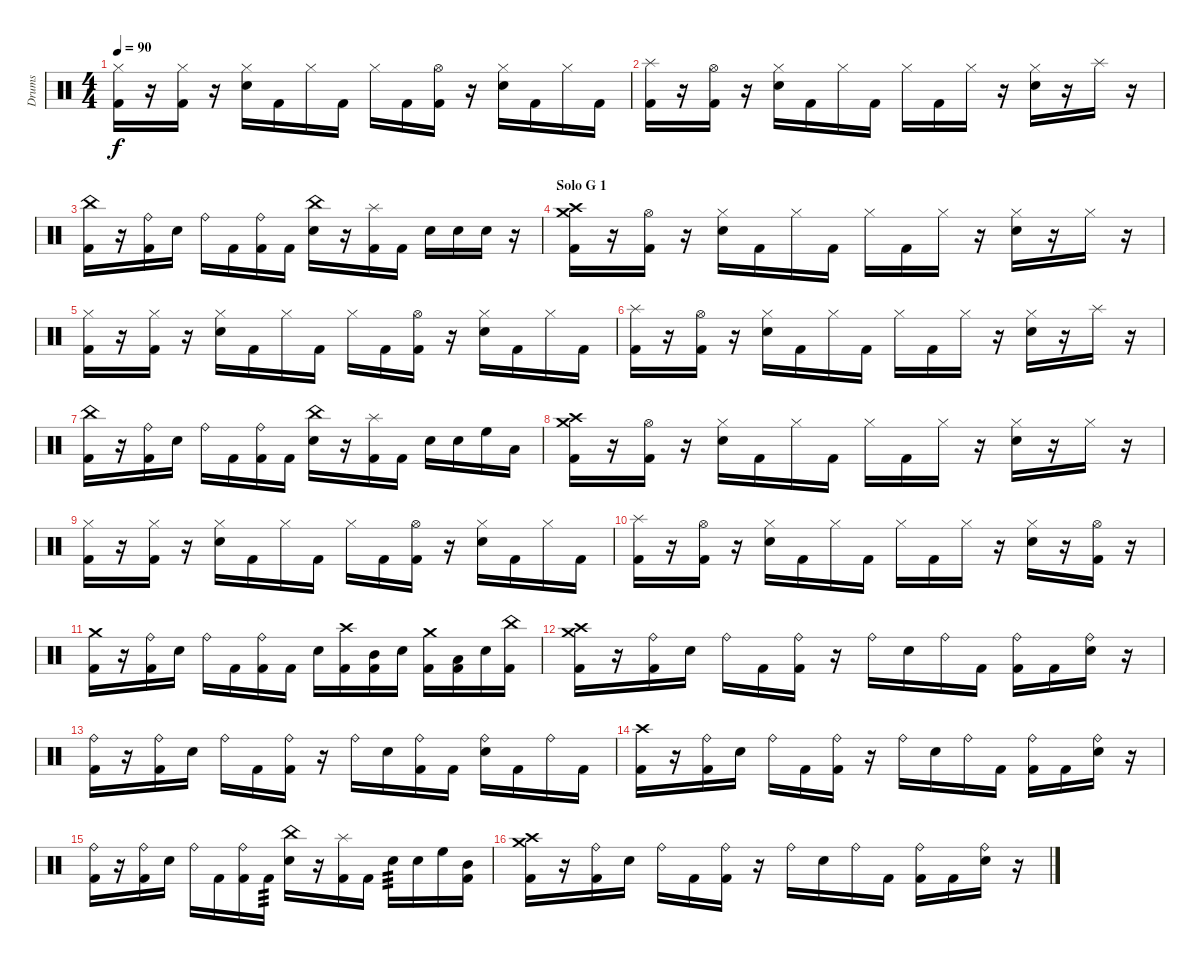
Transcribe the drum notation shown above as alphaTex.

\track ("Drums" "Drums") {instrument percussion}
\staff {score}
\articulation defaults
\ts (4 4)
\tempo 90
\clef neutral
\ks c
("Hi-Hat (closed)" "Kick (hit) 2").16{dy f} r.16 ("Hi-Hat (closed)" "Kick (hit) 2").16 r.16 ("Hi-Hat (closed)" "Snare (hit) 2").16 "Kick (hit) 2".16 "Hi-Hat (closed)".16 "Kick (hit) 2".16 "Hi-Hat (closed)".16 "Kick (hit) 2".16 ("Hi-Hat (open)" "Kick (hit) 2").16 r.16 ("Hi-Hat (closed)" "Snare (hit) 2").16 "Kick (hit) 2".16 "Hi-Hat (closed)".16 "Kick (hit) 2".16 |
("Splash (hit)" "Kick (hit) 2").16 r.16 ("Hi-Hat (open)" "Kick (hit) 2").16 r.16 ("Hi-Hat (closed)" "Snare (hit) 2").16 "Kick (hit) 2".16 "Hi-Hat (closed)".16 "Kick (hit) 2".16 "Hi-Hat (closed)".16 "Kick (hit) 2".16 "Hi-Hat (closed)".16 r.16 ("Hi-Hat (closed)" "Snare (hit) 2").16 r.16 "Splash (hit)".16 r.16 |
("China (hit)" "Kick (hit) 2").16 r.16 ("Ride (bell)" "Kick (hit) 2").16 "Snare (hit) 2".16 "Ride (bell)".16 "Kick (hit) 2".16 ("Ride (bell)" "Kick (hit) 2").16 "Kick (hit) 2".16 ("China (hit)" "Snare (hit) 2").16 r.16 ("Splash (hit)" "Kick (hit) 2").16 "Kick (hit) 2".16 "Snare (hit) 2".16 "Snare (hit) 2".16 "Snare (hit) 2".16 r.16 |
\section ("" "Solo G 1")
("Crash high (hit)" "Crash medium (hit)" "Kick (hit) 2").16 r.16 ("Hi-Hat (open)" "Kick (hit) 2").16 r.16 ("Hi-Hat (closed)" "Snare (hit) 2").16 "Kick (hit) 2".16 "Hi-Hat (closed)".16 "Kick (hit) 2".16 "Hi-Hat (closed)".16 "Kick (hit) 2".16 "Hi-Hat (closed)".16 r.16 ("Hi-Hat (closed)" "Snare (hit) 2").16 r.16 "Hi-Hat (closed)".16 r.16 |
("Hi-Hat (closed)" "Kick (hit) 2").16 r.16 ("Hi-Hat (closed)" "Kick (hit) 2").16 r.16 ("Hi-Hat (closed)" "Snare (hit) 2").16 "Kick (hit) 2".16 "Hi-Hat (closed)".16 "Kick (hit) 2".16 "Hi-Hat (closed)".16 "Kick (hit) 2".16 ("Hi-Hat (open)" "Kick (hit) 2").16 r.16 ("Hi-Hat (closed)" "Snare (hit) 2").16 "Kick (hit) 2".16 "Hi-Hat (closed)".16 "Kick (hit) 2".16 |
("Splash (hit)" "Kick (hit) 2").16 r.16 ("Hi-Hat (open)" "Kick (hit) 2").16 r.16 ("Hi-Hat (closed)" "Snare (hit) 2").16 "Kick (hit) 2".16 "Hi-Hat (closed)".16 "Kick (hit) 2".16 "Hi-Hat (closed)".16 "Kick (hit) 2".16 "Hi-Hat (closed)".16 r.16 ("Hi-Hat (closed)" "Snare (hit) 2").16 r.16 "Splash (hit)".16 r.16 |
("China (hit)" "Kick (hit) 2").16 r.16 ("Ride (bell)" "Kick (hit) 2").16 "Snare (hit) 2".16 "Ride (bell)".16 "Kick (hit) 2".16 ("Ride (bell)" "Kick (hit) 2").16 "Kick (hit) 2".16 ("China (hit)" "Snare (hit) 2").16 r.16 ("Splash (hit)" "Kick (hit) 2").16 "Kick (hit) 2".16 "Snare (hit) 2".16 "Snare (hit) 2".16 "High Floor Tom (hit)".16 "Low Floor Tom (hit)".16 |
("Crash high (hit)" "Crash medium (hit)" "Kick (hit) 2").16 r.16 ("Hi-Hat (open)" "Kick (hit) 2").16 r.16 ("Hi-Hat (closed)" "Snare (hit) 2").16 "Kick (hit) 2".16 "Hi-Hat (closed)".16 "Kick (hit) 2".16 "Hi-Hat (closed)".16 "Kick (hit) 2".16 "Hi-Hat (closed)".16 r.16 ("Hi-Hat (closed)" "Snare (hit) 2").16 r.16 "Hi-Hat (closed)".16 r.16 |
("Hi-Hat (closed)" "Kick (hit) 2").16 r.16 ("Hi-Hat (closed)" "Kick (hit) 2").16 r.16 ("Hi-Hat (closed)" "Snare (hit) 2").16 "Kick (hit) 2".16 "Hi-Hat (closed)".16 "Kick (hit) 2".16 "Hi-Hat (closed)".16 "Kick (hit) 2".16 ("Hi-Hat (open)" "Kick (hit) 2").16 r.16 ("Hi-Hat (closed)" "Snare (hit) 2").16 "Kick (hit) 2".16 "Hi-Hat (closed)".16 "Kick (hit) 2".16 |
("Splash (hit)" "Kick (hit) 2").16 r.16 ("Hi-Hat (open)" "Kick (hit) 2").16 r.16 ("Hi-Hat (closed)" "Snare (hit) 2").16 "Kick (hit) 2".16 "Hi-Hat (closed)".16 "Kick (hit) 2".16 "Hi-Hat (closed)".16 "Kick (hit) 2".16 "Hi-Hat (closed)".16 r.16 ("Hi-Hat (closed)" "Snare (hit) 2").16 r.16 ("Hi-Hat (open)" "Kick (hit) 2").16 r.16 |
("Crash medium (hit)" "Kick (hit) 2").16 r.16 ("Ride (bell)" "Kick (hit) 2").16 "Snare (hit) 2".16 "Ride (bell)".16 "Kick (hit) 2".16 ("Ride (bell)" "Kick (hit) 2").16 "Kick (hit) 2".16 "Snare (hit) 2".16 ("Crash high (hit)" "Kick (hit) 2").16 ("Mid Tom (hit)" "Kick (hit) 2").16 "Snare (hit) 2".16 ("Crash medium (hit)" "Kick (hit) 2").16 ("Low Tom (hit)" "Kick (hit) 2").16 "Snare (hit) 2".16 ("China (hit)" "Kick (hit) 2").16 |
("Crash high (hit)" "Crash medium (hit)" "Kick (hit) 2").16 r.16 ("Ride (bell)" "Kick (hit) 2").16 "Snare (hit) 2".16 "Ride (bell)".16 "Kick (hit) 2".16 ("Ride (bell)" "Kick (hit) 2").16 r.16 "Ride (bell)".16 "Snare (hit) 2".16 "Ride (bell)".16 "Kick (hit) 2".16 ("Ride (bell)" "Kick (hit) 2").16 "Kick (hit) 2".16 ("Ride (bell)" "Snare (hit) 2").16 r.16 |
("Ride (bell)" "Kick (hit) 2").16 r.16 ("Ride (bell)" "Kick (hit) 2").16 "Snare (hit) 2".16 "Ride (bell)".16 "Kick (hit) 2".16 ("Ride (bell)" "Kick (hit) 2").16 r.16 "Ride (bell)".16 "Snare (hit) 2".16 ("Ride (bell)" "Kick (hit) 2").16 "Kick (hit) 2".16 ("Ride (bell)" "Snare (hit) 2").16 "Kick (hit) 2".16 "Ride (bell)".16 "Kick (hit) 2".16 |
("Crash high (hit)" "Kick (hit) 2").16 r.16 ("Ride (bell)" "Kick (hit) 2").16 "Snare (hit) 2".16 "Ride (bell)".16 "Kick (hit) 2".16 ("Ride (bell)" "Kick (hit) 2").16 r.16 "Ride (bell)".16 "Snare (hit) 2".16 "Ride (bell)".16 "Kick (hit) 2".16 ("Ride (bell)" "Kick (hit) 2").16 "Kick (hit) 2".16 ("Ride (bell)" "Snare (hit) 2").16 r.16 |
("Ride (bell)" "Kick (hit) 2").16 r.16 ("Ride (bell)" "Kick (hit) 2").16 "Snare (hit) 2".16 "Ride (bell)".16 "Kick (hit) 2".16 ("Ride (bell)" "Kick (hit) 2").16 "Kick (hit) 2".16{tp 3} ("China (hit)" "Snare (hit) 2").16 r.16 ("Splash (hit)" "Kick (hit) 2").16 "Kick (hit) 2".16 "Snare (hit) 2".16{tp 3} "Snare (hit) 2".16 "High Floor Tom (hit)".16 ("Mid Tom (hit)" "Kick (hit) 2").16 |
("Crash high (hit)" "Crash medium (hit)" "Kick (hit) 2").16 r.16 ("Ride (bell)" "Kick (hit) 2").16 "Snare (hit) 2".16 "Ride (bell)".16 "Kick (hit) 2".16 ("Ride (bell)" "Kick (hit) 2").16 r.16 "Ride (bell)".16 "Snare (hit) 2".16 "Ride (bell)".16 "Kick (hit) 2".16 ("Ride (bell)" "Kick (hit) 2").16 "Kick (hit) 2".16 ("Ride (bell)" "Snare (hit) 2").16 r.16
